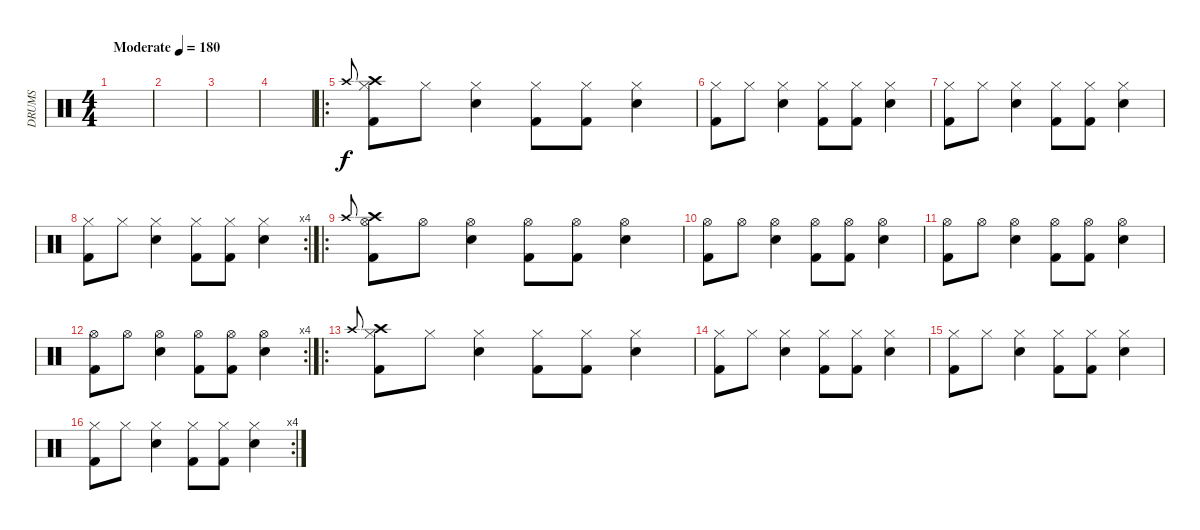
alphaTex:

\track ("DRUMS" "DRUMS") {instrument percussion}
\staff {score}
\articulation defaults
\ts (4 4)
\tempo (180 "Moderate")
\clef neutral
\ks c
|
|
|
|
\ro "Crash high (hit)".8{gr onbeat}
("Crash high (hit)" "Hi-Hat (closed)" "Kick (hit) 2").8 "Hi-Hat (closed)".8 ("Hi-Hat (closed)" "Snare (hit) 2").4 ("Hi-Hat (closed)" "Kick (hit) 2").8 ("Hi-Hat (closed)" "Kick (hit) 2").8 ("Hi-Hat (closed)" "Snare (hit) 2").4 |
("Hi-Hat (closed)" "Kick (hit) 2").8 "Hi-Hat (closed)".8 ("Hi-Hat (closed)" "Snare (hit) 2").4 ("Hi-Hat (closed)" "Kick (hit) 2").8 ("Hi-Hat (closed)" "Kick (hit) 2").8 ("Hi-Hat (closed)" "Snare (hit) 2").4 |
("Hi-Hat (closed)" "Kick (hit) 2").8 "Hi-Hat (closed)".8 ("Hi-Hat (closed)" "Snare (hit) 2").4 ("Hi-Hat (closed)" "Kick (hit) 2").8 ("Hi-Hat (closed)" "Kick (hit) 2").8 ("Hi-Hat (closed)" "Snare (hit) 2").4 |
\rc 4
("Hi-Hat (closed)" "Kick (hit) 2").8 "Hi-Hat (closed)".8 ("Hi-Hat (closed)" "Snare (hit) 2").4 ("Hi-Hat (closed)" "Kick (hit) 2").8 ("Hi-Hat (closed)" "Kick (hit) 2").8 ("Hi-Hat (closed)" "Snare (hit) 2").4 |
\ro "Crash high (hit)".8{gr onbeat}
("Crash high (hit)" "Hi-Hat (open)" "Kick (hit) 2").8 "Hi-Hat (open)".8 ("Hi-Hat (open)" "Snare (hit) 2").4 ("Hi-Hat (open)" "Kick (hit) 2").8 ("Hi-Hat (open)" "Kick (hit) 2").8 ("Hi-Hat (open)" "Snare (hit) 2").4 |
("Hi-Hat (open)" "Kick (hit) 2").8 "Hi-Hat (open)".8 ("Hi-Hat (open)" "Snare (hit) 2").4 ("Hi-Hat (open)" "Kick (hit) 2").8 ("Hi-Hat (open)" "Kick (hit) 2").8 ("Hi-Hat (open)" "Snare (hit) 2").4 |
("Hi-Hat (open)" "Kick (hit) 2").8 "Hi-Hat (open)".8 ("Hi-Hat (open)" "Snare (hit) 2").4 ("Hi-Hat (open)" "Kick (hit) 2").8 ("Hi-Hat (open)" "Kick (hit) 2").8 ("Hi-Hat (open)" "Snare (hit) 2").4 |
\rc 4
("Hi-Hat (open)" "Kick (hit) 2").8 "Hi-Hat (open)".8 ("Hi-Hat (open)" "Snare (hit) 2").4 ("Hi-Hat (open)" "Kick (hit) 2").8 ("Hi-Hat (open)" "Kick (hit) 2").8 ("Hi-Hat (open)" "Snare (hit) 2").4 |
\ro "Crash high (hit)".8{gr onbeat}
("Crash high (hit)" "Hi-Hat (closed)" "Kick (hit) 2").8 "Hi-Hat (closed)".8 ("Hi-Hat (closed)" "Snare (hit) 2").4 ("Hi-Hat (closed)" "Kick (hit) 2").8 ("Hi-Hat (closed)" "Kick (hit) 2").8 ("Hi-Hat (closed)" "Snare (hit) 2").4 |
("Hi-Hat (closed)" "Kick (hit) 2").8 "Hi-Hat (closed)".8 ("Hi-Hat (closed)" "Snare (hit) 2").4 ("Hi-Hat (closed)" "Kick (hit) 2").8 ("Hi-Hat (closed)" "Kick (hit) 2").8 ("Hi-Hat (closed)" "Snare (hit) 2").4 |
("Hi-Hat (closed)" "Kick (hit) 2").8 "Hi-Hat (closed)".8 ("Hi-Hat (closed)" "Snare (hit) 2").4 ("Hi-Hat (closed)" "Kick (hit) 2").8 ("Hi-Hat (closed)" "Kick (hit) 2").8 ("Hi-Hat (closed)" "Snare (hit) 2").4 |
\rc 4
("Hi-Hat (closed)" "Kick (hit) 2").8 "Hi-Hat (closed)".8 ("Hi-Hat (closed)" "Snare (hit) 2").4 ("Hi-Hat (closed)" "Kick (hit) 2").8 ("Hi-Hat (closed)" "Kick (hit) 2").8 ("Hi-Hat (closed)" "Snare (hit) 2").4
